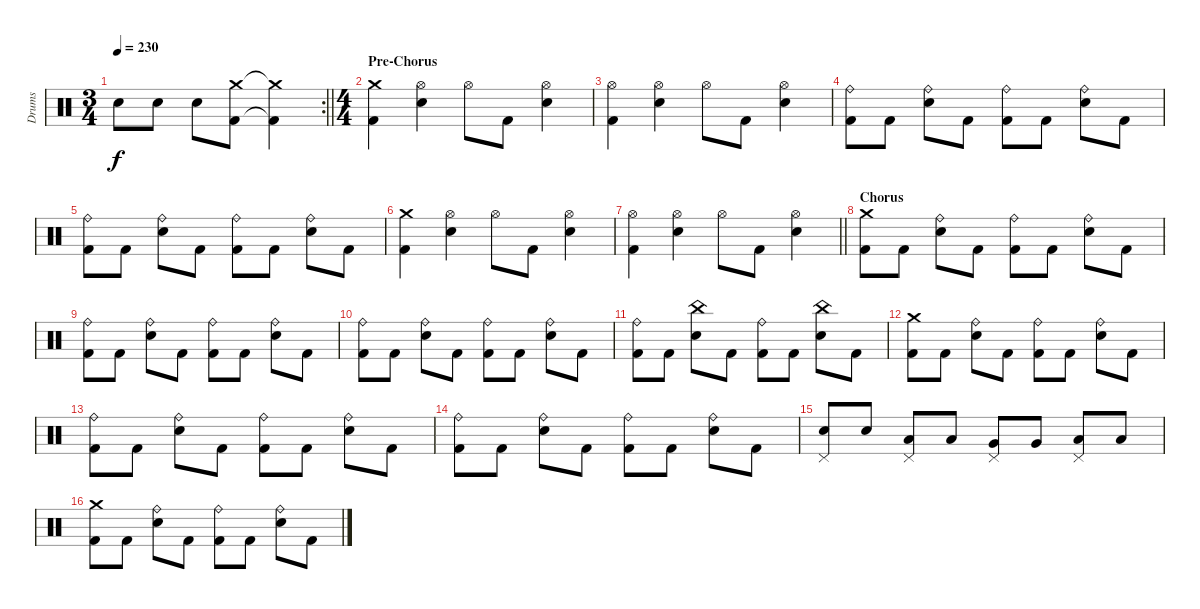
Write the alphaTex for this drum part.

\track ("Drums" "Drums") {instrument percussion}
\staff {score}
\articulation defaults
\rc 2
\ts (3 4)
\tempo 230
\clef neutral
\barLineRight lightlight
\ks c "Snare (hit) 2".8{dy f} "Snare (hit) 2".8 "Snare (hit) 2".8
("Crash medium (hit)" "Kick (hit) 2").8 ("Crash medium (hit)"{t} "Kick (hit) 2"{t}).4 |
\ts (4 4)
\section ("" "Pre-Chorus")
("Crash medium (hit)" "Kick (hit) 2").4 ("Hi-Hat (open)" "Snare (hit) 2").4 "Hi-Hat (open)".8 "Kick (hit) 2".8 ("Hi-Hat (open)" "Snare (hit) 2").4 |
("Hi-Hat (open)" "Kick (hit) 2").4 ("Hi-Hat (open)" "Snare (hit) 2").4 "Hi-Hat (open)".8 "Kick (hit) 2".8 ("Hi-Hat (open)" "Snare (hit) 2").4 |
("Ride (bell)" "Kick (hit) 2").8 "Kick (hit) 2".8 ("Ride (bell)" "Snare (hit) 2").8 "Kick (hit) 2".8 ("Ride (bell)" "Kick (hit) 2").8 "Kick (hit) 2".8 ("Ride (bell)" "Snare (hit) 2").8 "Kick (hit) 2".8 |
("Ride (bell)" "Kick (hit) 2").8 "Kick (hit) 2".8 ("Ride (bell)" "Snare (hit) 2").8 "Kick (hit) 2".8 ("Ride (bell)" "Kick (hit) 2").8 "Kick (hit) 2".8 ("Ride (bell)" "Snare (hit) 2").8 "Kick (hit) 2".8 |
("Crash medium (hit)" "Kick (hit) 2").4 ("Hi-Hat (open)" "Snare (hit) 2").4 "Hi-Hat (open)".8 "Kick (hit) 2".8 ("Hi-Hat (open)" "Snare (hit) 2").4 |
\barLineRight lightlight
("Hi-Hat (open)" "Kick (hit) 2").4 ("Hi-Hat (open)" "Snare (hit) 2").4 "Hi-Hat (open)".8 "Kick (hit) 2".8 ("Hi-Hat (open)" "Snare (hit) 2").4 |
\section ("" "Chorus")
("Crash medium (hit)" "Kick (hit) 2").8 "Kick (hit) 2".8 ("Ride (bell)" "Snare (hit) 2").8 "Kick (hit) 2".8 ("Ride (bell)" "Kick (hit) 2").8 "Kick (hit) 2".8 ("Ride (bell)" "Snare (hit) 2").8 "Kick (hit) 2".8 |
("Ride (bell)" "Kick (hit) 2").8 "Kick (hit) 2".8 ("Ride (bell)" "Snare (hit) 2").8 "Kick (hit) 2".8 ("Ride (bell)" "Kick (hit) 2").8 "Kick (hit) 2".8 ("Ride (bell)" "Snare (hit) 2").8 "Kick (hit) 2".8 |
("Ride (bell)" "Kick (hit) 2").8 "Kick (hit) 2".8 ("Ride (bell)" "Snare (hit) 2").8 "Kick (hit) 2".8 ("Ride (bell)" "Kick (hit) 2").8 "Kick (hit) 2".8 ("Ride (bell)" "Snare (hit) 2").8 "Kick (hit) 2".8 |
("Ride (bell)" "Kick (hit) 2").8 "Kick (hit) 2".8 ("China (hit)" "Snare (hit) 2").8 "Kick (hit) 2".8 ("Ride (bell)" "Kick (hit) 2").8 "Kick (hit) 2".8 ("China (hit)" "Snare (hit) 2").8 "Kick (hit) 2".8 |
("Crash medium (hit)" "Kick (hit) 2").8 "Kick (hit) 2".8 ("Ride (bell)" "Snare (hit) 2").8 "Kick (hit) 2".8 ("Ride (bell)" "Kick (hit) 2").8 "Kick (hit) 2".8 ("Ride (bell)" "Snare (hit) 2").8 "Kick (hit) 2".8 |
("Ride (bell)" "Kick (hit) 2").8 "Kick (hit) 2".8 ("Ride (bell)" "Snare (hit) 2").8 "Kick (hit) 2".8 ("Ride (bell)" "Kick (hit) 2").8 "Kick (hit) 2".8 ("Ride (bell)" "Snare (hit) 2").8 "Kick (hit) 2".8 |
("Ride (bell)" "Kick (hit) 2").8 "Kick (hit) 2".8 ("Ride (bell)" "Snare (hit) 2").8 "Kick (hit) 2".8 ("Ride (bell)" "Kick (hit) 2").8 "Kick (hit) 2".8 ("Ride (bell)" "Snare (hit) 2").8 "Kick (hit) 2".8 |
("Pedal Hi-Hat (hit)" "Snare (hit) 2").8 "Snare (hit) 2".8 ("Pedal Hi-Hat (hit)" "Low Tom (hit)").8 "Low Tom (hit)".8 ("Pedal Hi-Hat (hit)" "Very Low Tom (hit)").8 "Very Low Tom (hit)".8 ("Pedal Hi-Hat (hit)" "Low Floor Tom (hit)").8 "Low Floor Tom (hit)".8 |
("Crash medium (hit)" "Kick (hit) 2").8 "Kick (hit) 2".8 ("Ride (bell)" "Snare (hit) 2").8 "Kick (hit) 2".8 ("Ride (bell)" "Kick (hit) 2").8 "Kick (hit) 2".8 ("Ride (bell)" "Snare (hit) 2").8 "Kick (hit) 2".8
